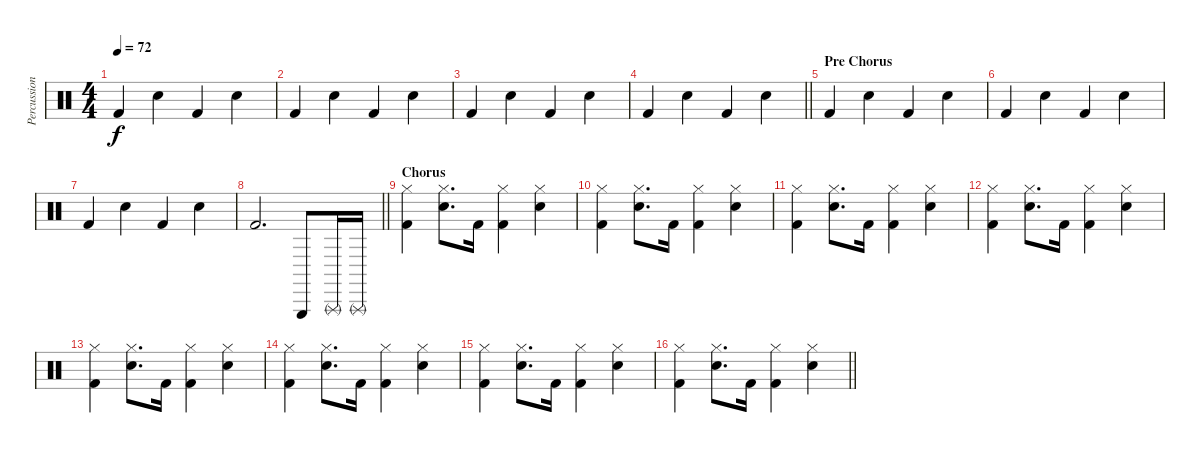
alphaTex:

\track ("Percussion" "Percussion") {instrument percussion}
\staff {score}
\articulation defaults
\ts (4 4)
\tempo 72
\clef neutral
\ks c "Kick (hit) 2".4{dy f} "Electric Snare (hit)".4 "Kick (hit) 2".4 "Electric Snare (hit)".4
|
"Kick (hit) 2".4 "Electric Snare (hit)".4 "Kick (hit) 2".4 "Electric Snare (hit)".4 |
"Kick (hit) 2".4 "Electric Snare (hit)".4 "Kick (hit) 2".4 "Electric Snare (hit)".4 |
\barLineRight lightlight "Kick (hit) 2".4 "Electric Snare (hit)".4 "Kick (hit) 2".4 "Electric Snare (hit)".4
|
\section ("" "Pre Chorus")
"Kick (hit) 2".4 "Electric Snare (hit)".4 "Kick (hit) 2".4 "Electric Snare (hit)".4 |
"Kick (hit) 2".4 "Electric Snare (hit)".4 "Kick (hit) 2".4 "Electric Snare (hit)".4 |
"Kick (hit) 2".4 "Electric Snare (hit)".4 "Kick (hit) 2".4 "Electric Snare (hit)".4 |
\barLineRight lightlight "Kick (hit) 2".2{d} "Triangle (hit)".8 "Triangle (rnute)".16 "Triangle (rnute)".16
|
\section ("" "Chorus")
("Hi-Hat (closed)" "Kick (hit) 2").4 ("Hi-Hat (closed)" "Electric Snare (hit)").8{d} "Kick (hit) 2".16 ("Hi-Hat (closed)" "Kick (hit) 2").4 ("Hi-Hat (closed)" "Electric Snare (hit)").4 |
("Hi-Hat (closed)" "Kick (hit) 2").4 ("Hi-Hat (closed)" "Electric Snare (hit)").8{d} "Kick (hit) 2".16 ("Hi-Hat (closed)" "Kick (hit) 2").4 ("Hi-Hat (closed)" "Electric Snare (hit)").4 |
("Hi-Hat (closed)" "Kick (hit) 2").4 ("Hi-Hat (closed)" "Electric Snare (hit)").8{d} "Kick (hit) 2".16 ("Hi-Hat (closed)" "Kick (hit) 2").4 ("Hi-Hat (closed)" "Electric Snare (hit)").4 |
("Hi-Hat (closed)" "Kick (hit) 2").4 ("Hi-Hat (closed)" "Electric Snare (hit)").8{d} "Kick (hit) 2".16 ("Hi-Hat (closed)" "Kick (hit) 2").4 ("Hi-Hat (closed)" "Electric Snare (hit)").4 |
("Hi-Hat (closed)" "Kick (hit) 2").4 ("Hi-Hat (closed)" "Electric Snare (hit)").8{d} "Kick (hit) 2".16 ("Hi-Hat (closed)" "Kick (hit) 2").4 ("Hi-Hat (closed)" "Electric Snare (hit)").4 |
("Hi-Hat (closed)" "Kick (hit) 2").4 ("Hi-Hat (closed)" "Electric Snare (hit)").8{d} "Kick (hit) 2".16 ("Hi-Hat (closed)" "Kick (hit) 2").4 ("Hi-Hat (closed)" "Electric Snare (hit)").4 |
("Hi-Hat (closed)" "Kick (hit) 2").4 ("Hi-Hat (closed)" "Electric Snare (hit)").8{d} "Kick (hit) 2".16 ("Hi-Hat (closed)" "Kick (hit) 2").4 ("Hi-Hat (closed)" "Electric Snare (hit)").4 |
\barLineRight lightlight
("Hi-Hat (closed)" "Kick (hit) 2").4 ("Hi-Hat (closed)" "Electric Snare (hit)").8{d} "Kick (hit) 2".16 ("Hi-Hat (closed)" "Kick (hit) 2").4 ("Hi-Hat (closed)" "Electric Snare (hit)").4
